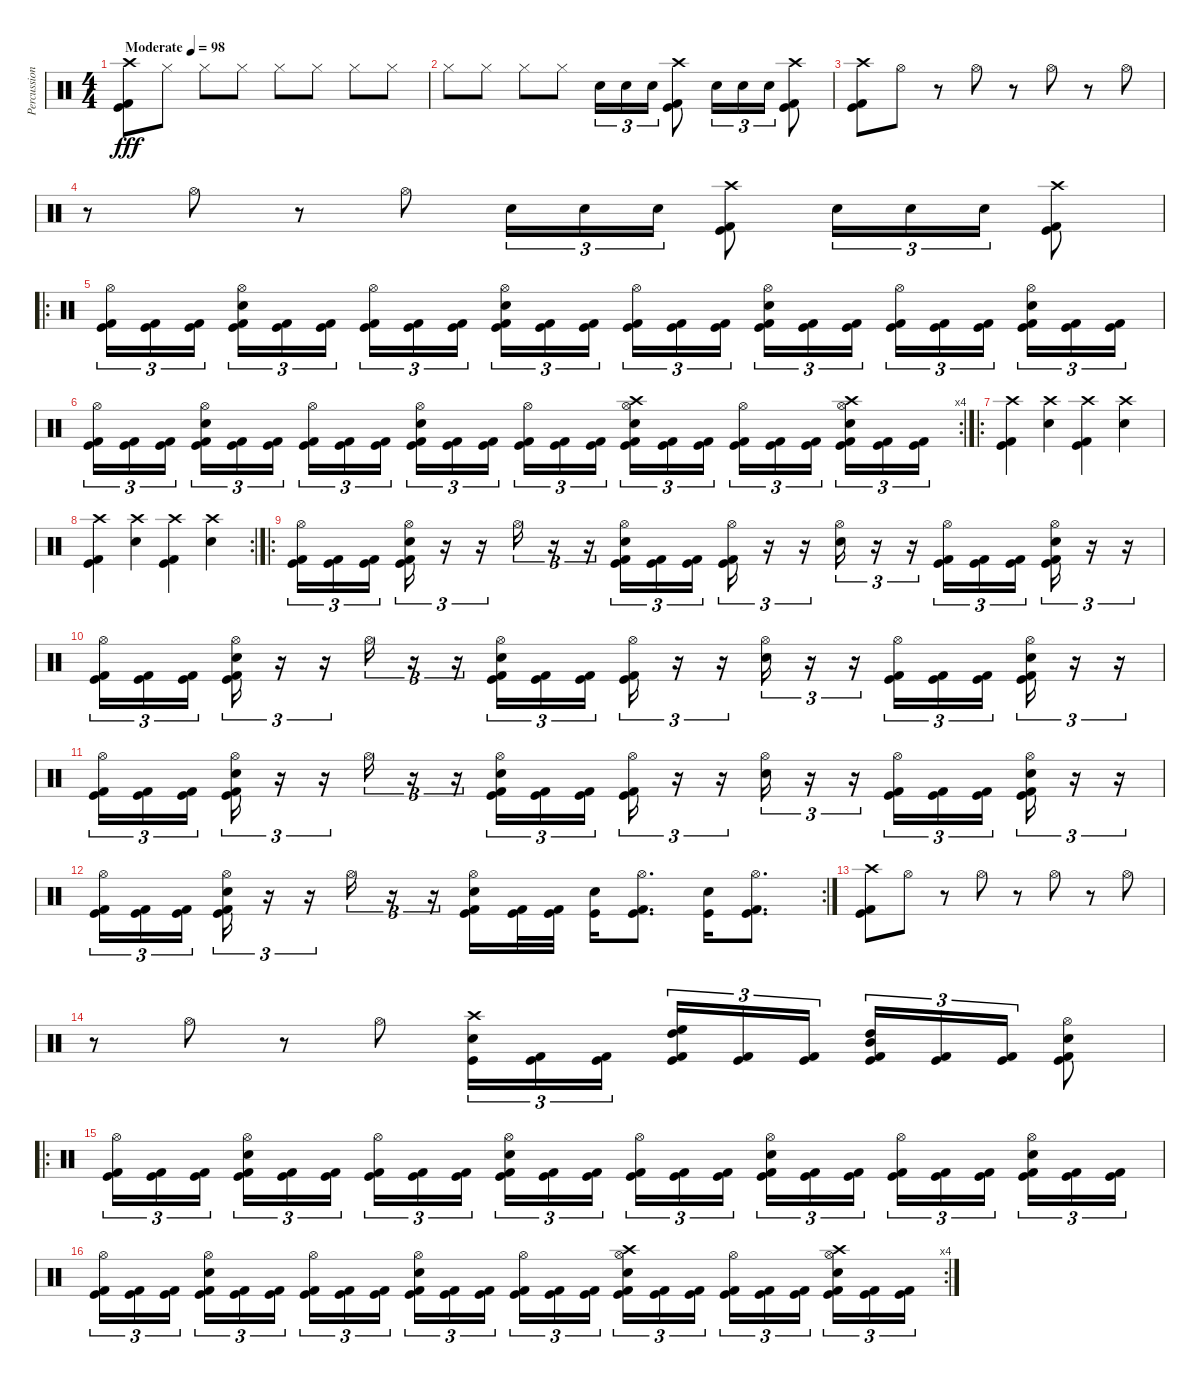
\track ("Percussion" "Percussion") {instrument percussion}
\staff {score}
\articulation defaults
\ts (4 4)
\tempo (98 "Moderate")
\clef neutral
\ks c
("Crash high (hit)" "Kick (hit) 2" "Kick (hit)").8{dy fff} "Hi-Hat (closed)".8 "Hi-Hat (closed)".8 "Hi-Hat (closed)".8 "Hi-Hat (closed)".8 "Hi-Hat (closed)".8 "Hi-Hat (closed)".8 "Hi-Hat (closed)".8 |
"Hi-Hat (closed)".8 "Hi-Hat (closed)".8 "Hi-Hat (closed)".8 "Hi-Hat (closed)".8 "Electric Snare (hit)".16{tu (3 2)} "Electric Snare (hit)".16{tu (3 2)} "Electric Snare (hit)".16{tu (3 2)} ("Crash high (hit)" "Kick (hit) 2" "Kick (hit)").8 "Electric Snare (hit)".16{tu (3 2)} "Electric Snare (hit)".16{tu (3 2)} "Electric Snare (hit)".16{tu (3 2)} ("Crash high (hit)" "Kick (hit) 2" "Kick (hit)").8 |
("Crash high (hit)" "Kick (hit) 2" "Kick (hit)").8 "Hi-Hat (open)".8 r.8 "Hi-Hat (open)".8 r.8 "Hi-Hat (open)".8 r.8 "Hi-Hat (open)".8 |
r.8 "Hi-Hat (open)".8 r.8 "Hi-Hat (open)".8 "Electric Snare (hit)".16{tu (3 2)} "Electric Snare (hit)".16{tu (3 2)} "Electric Snare (hit)".16{tu (3 2)} ("Crash high (hit)" "Kick (hit) 2" "Kick (hit)").8 "Electric Snare (hit)".16{tu (3 2)} "Electric Snare (hit)".16{tu (3 2)} "Electric Snare (hit)".16{tu (3 2)} ("Crash high (hit)" "Kick (hit) 2" "Kick (hit)").8 |
\ro
("Hi-Hat (open)" "Kick (hit) 2" "Kick (hit)").16{tu (3 2)} ("Kick (hit) 2" "Kick (hit)").16{tu (3 2)} ("Kick (hit) 2" "Kick (hit)").16{tu (3 2) beam splitsecondary} ("Electric Snare (hit)" "Hi-Hat (open)" "Kick (hit) 2" "Kick (hit)").16{tu (3 2)} ("Kick (hit) 2" "Kick (hit)").16{tu (3 2)} ("Kick (hit) 2" "Kick (hit)").16{tu (3 2)} ("Hi-Hat (open)" "Kick (hit) 2" "Kick (hit)").16{tu (3 2)} ("Kick (hit) 2" "Kick (hit)").16{tu (3 2)} ("Kick (hit) 2" "Kick (hit)").16{tu (3 2) beam splitsecondary} ("Electric Snare (hit)" "Hi-Hat (open)" "Kick (hit) 2" "Kick (hit)").16{tu (3 2)} ("Kick (hit) 2" "Kick (hit)").16{tu (3 2)} ("Kick (hit) 2" "Kick (hit)").16{tu (3 2)} ("Hi-Hat (open)" "Kick (hit) 2" "Kick (hit)").16{tu (3 2)} ("Kick (hit) 2" "Kick (hit)").16{tu (3 2)} ("Kick (hit) 2" "Kick (hit)").16{tu (3 2) beam splitsecondary} ("Electric Snare (hit)" "Hi-Hat (open)" "Kick (hit) 2" "Kick (hit)").16{tu (3 2)} ("Kick (hit) 2" "Kick (hit)").16{tu (3 2)} ("Kick (hit) 2" "Kick (hit)").16{tu (3 2)} ("Hi-Hat (open)" "Kick (hit) 2" "Kick (hit)").16{tu (3 2)} ("Kick (hit) 2" "Kick (hit)").16{tu (3 2)} ("Kick (hit) 2" "Kick (hit)").16{tu (3 2) beam splitsecondary} ("Electric Snare (hit)" "Hi-Hat (open)" "Kick (hit) 2" "Kick (hit)").16{tu (3 2)} ("Kick (hit) 2" "Kick (hit)").16{tu (3 2)} ("Kick (hit) 2" "Kick (hit)").16{tu (3 2)} |
\rc 4
("Hi-Hat (open)" "Kick (hit) 2" "Kick (hit)").16{tu (3 2)} ("Kick (hit) 2" "Kick (hit)").16{tu (3 2)} ("Kick (hit) 2" "Kick (hit)").16{tu (3 2) beam splitsecondary} ("Electric Snare (hit)" "Hi-Hat (open)" "Kick (hit) 2" "Kick (hit)").16{tu (3 2)} ("Kick (hit) 2" "Kick (hit)").16{tu (3 2)} ("Kick (hit) 2" "Kick (hit)").16{tu (3 2)} ("Hi-Hat (open)" "Kick (hit) 2" "Kick (hit)").16{tu (3 2)} ("Kick (hit) 2" "Kick (hit)").16{tu (3 2)} ("Kick (hit) 2" "Kick (hit)").16{tu (3 2) beam splitsecondary} ("Electric Snare (hit)" "Hi-Hat (open)" "Kick (hit) 2" "Kick (hit)").16{tu (3 2)} ("Kick (hit) 2" "Kick (hit)").16{tu (3 2)} ("Kick (hit) 2" "Kick (hit)").16{tu (3 2)} ("Hi-Hat (open)" "Kick (hit) 2" "Kick (hit)").16{tu (3 2)} ("Kick (hit) 2" "Kick (hit)").16{tu (3 2)} ("Kick (hit) 2" "Kick (hit)").16{tu (3 2) beam splitsecondary} ("Crash high (hit)" "Electric Snare (hit)" "Hi-Hat (open)" "Kick (hit) 2" "Kick (hit)").16{tu (3 2)} ("Kick (hit) 2" "Kick (hit)").16{tu (3 2)} ("Kick (hit) 2" "Kick (hit)").16{tu (3 2)} ("Hi-Hat (open)" "Kick (hit) 2" "Kick (hit)").16{tu (3 2)} ("Kick (hit) 2" "Kick (hit)").16{tu (3 2)} ("Kick (hit) 2" "Kick (hit)").16{tu (3 2) beam splitsecondary} ("Crash high (hit)" "Electric Snare (hit)" "Hi-Hat (open)" "Kick (hit) 2" "Kick (hit)").16{tu (3 2)} ("Kick (hit) 2" "Kick (hit)").16{tu (3 2)} ("Kick (hit) 2" "Kick (hit)").16{tu (3 2)} |
\ro
("Crash high (hit)" "Kick (hit) 2" "Kick (hit)").4 ("Electric Snare (hit)" "Crash high (hit)").4 ("Crash high (hit)" "Kick (hit) 2" "Kick (hit)").4 ("Electric Snare (hit)" "Crash high (hit)").4 |
\rc 2
("Crash high (hit)" "Kick (hit) 2" "Kick (hit)").4 ("Electric Snare (hit)" "Crash high (hit)").4 ("Crash high (hit)" "Kick (hit) 2" "Kick (hit)").4 ("Electric Snare (hit)" "Crash high (hit)").4 |
\ro
("Hi-Hat (open)" "Kick (hit) 2" "Kick (hit)").16{tu (3 2)} ("Kick (hit) 2" "Kick (hit)").16{tu (3 2)} ("Kick (hit) 2" "Kick (hit)").16{tu (3 2) beam splitsecondary} ("Hi-Hat (open)" "Electric Snare (hit)" "Kick (hit) 2" "Kick (hit)").16{tu (3 2)} r.16{tu (3 2)} r.16{tu (3 2)} "Hi-Hat (open)".16{tu (3 2)} r.16{tu (3 2)} r.16{tu (3 2)} ("Hi-Hat (open)" "Electric Snare (hit)" "Kick (hit) 2" "Kick (hit)").16{tu (3 2)} ("Kick (hit) 2" "Kick (hit)").16{tu (3 2)} ("Kick (hit) 2" "Kick (hit)").16{tu (3 2)} ("Hi-Hat (open)" "Kick (hit) 2" "Kick (hit)").16{tu (3 2)} r.16{tu (3 2)} r.16{tu (3 2)} ("Hi-Hat (open)" "Electric Snare (hit)").16{tu (3 2)} r.16{tu (3 2)} r.16{tu (3 2)} ("Hi-Hat (open)" "Kick (hit) 2" "Kick (hit)").16{tu (3 2)} ("Kick (hit) 2" "Kick (hit)").16{tu (3 2)} ("Kick (hit) 2" "Kick (hit)").16{tu (3 2) beam splitsecondary} ("Hi-Hat (open)" "Electric Snare (hit)" "Kick (hit) 2" "Kick (hit)").16{tu (3 2)} r.16{tu (3 2)} r.16{tu (3 2)} |
("Hi-Hat (open)" "Kick (hit) 2" "Kick (hit)").16{tu (3 2)} ("Kick (hit) 2" "Kick (hit)").16{tu (3 2)} ("Kick (hit) 2" "Kick (hit)").16{tu (3 2) beam splitsecondary} ("Hi-Hat (open)" "Electric Snare (hit)" "Kick (hit) 2" "Kick (hit)").16{tu (3 2)} r.16{tu (3 2)} r.16{tu (3 2)} "Hi-Hat (open)".16{tu (3 2)} r.16{tu (3 2)} r.16{tu (3 2)} ("Hi-Hat (open)" "Electric Snare (hit)" "Kick (hit) 2" "Kick (hit)").16{tu (3 2)} ("Kick (hit) 2" "Kick (hit)").16{tu (3 2)} ("Kick (hit) 2" "Kick (hit)").16{tu (3 2)} ("Hi-Hat (open)" "Kick (hit) 2" "Kick (hit)").16{tu (3 2)} r.16{tu (3 2)} r.16{tu (3 2)} ("Hi-Hat (open)" "Electric Snare (hit)").16{tu (3 2)} r.16{tu (3 2)} r.16{tu (3 2)} ("Hi-Hat (open)" "Kick (hit) 2" "Kick (hit)").16{tu (3 2)} ("Kick (hit) 2" "Kick (hit)").16{tu (3 2)} ("Kick (hit) 2" "Kick (hit)").16{tu (3 2) beam splitsecondary} ("Hi-Hat (open)" "Electric Snare (hit)" "Kick (hit) 2" "Kick (hit)").16{tu (3 2)} r.16{tu (3 2)} r.16{tu (3 2)} |
("Hi-Hat (open)" "Kick (hit) 2" "Kick (hit)").16{tu (3 2)} ("Kick (hit) 2" "Kick (hit)").16{tu (3 2)} ("Kick (hit) 2" "Kick (hit)").16{tu (3 2) beam splitsecondary} ("Hi-Hat (open)" "Electric Snare (hit)" "Kick (hit) 2" "Kick (hit)").16{tu (3 2)} r.16{tu (3 2)} r.16{tu (3 2)} "Hi-Hat (open)".16{tu (3 2)} r.16{tu (3 2)} r.16{tu (3 2)} ("Hi-Hat (open)" "Electric Snare (hit)" "Kick (hit) 2" "Kick (hit)").16{tu (3 2)} ("Kick (hit) 2" "Kick (hit)").16{tu (3 2)} ("Kick (hit) 2" "Kick (hit)").16{tu (3 2)} ("Hi-Hat (open)" "Kick (hit) 2" "Kick (hit)").16{tu (3 2)} r.16{tu (3 2)} r.16{tu (3 2)} ("Hi-Hat (open)" "Electric Snare (hit)").16{tu (3 2)} r.16{tu (3 2)} r.16{tu (3 2)} ("Hi-Hat (open)" "Kick (hit) 2" "Kick (hit)").16{tu (3 2)} ("Kick (hit) 2" "Kick (hit)").16{tu (3 2)} ("Kick (hit) 2" "Kick (hit)").16{tu (3 2) beam splitsecondary} ("Hi-Hat (open)" "Electric Snare (hit)" "Kick (hit) 2" "Kick (hit)").16{tu (3 2)} r.16{tu (3 2)} r.16{tu (3 2)} |
\rc 2
("Hi-Hat (open)" "Kick (hit) 2" "Kick (hit)").16{tu (3 2)} ("Kick (hit) 2" "Kick (hit)").16{tu (3 2)} ("Kick (hit) 2" "Kick (hit)").16{tu (3 2) beam splitsecondary} ("Hi-Hat (open)" "Electric Snare (hit)" "Kick (hit) 2" "Kick (hit)").16{tu (3 2)} r.16{tu (3 2)} r.16{tu (3 2)} "Hi-Hat (open)".16{tu (3 2)} r.16{tu (3 2)} r.16{tu (3 2)} ("Hi-Hat (open)" "Electric Snare (hit)" "Kick (hit) 2" "Kick (hit)").16 ("Kick (hit) 2" "Kick (hit)").32 ("Kick (hit) 2" "Kick (hit)").32 ("Electric Snare (hit)" "Kick (hit)").16 ("Hi-Hat (open)" "Kick (hit) 2" "Kick (hit)").8{d} ("Electric Snare (hit)" "Kick (hit)").16 ("Hi-Hat (open)" "Kick (hit)" "Kick (hit) 2").8{d} |
("Crash high (hit)" "Kick (hit) 2" "Kick (hit)").8 "Hi-Hat (open)".8 r.8 "Hi-Hat (open)".8 r.8 "Hi-Hat (open)".8 r.8 "Hi-Hat (open)".8 |
r.8 "Hi-Hat (open)".8 r.8 "Hi-Hat (open)".8 ("Electric Snare (hit)" "Kick (hit)" "Crash high (hit)").16{tu (3 2)} ("Kick (hit)" "Kick (hit) 2").16{tu (3 2)} ("Kick (hit)" "Kick (hit) 2").16{tu (3 2) beam splitsecondary} ("High Tom (hit)" "High Floor Tom (hit)" "Kick (hit)" "Kick (hit) 2").16{tu (3 2)} ("Kick (hit)" "Kick (hit) 2").16{tu (3 2)} ("Kick (hit)" "Kick (hit) 2").16{tu (3 2)} ("Mid Tom (hit)" "High Tom (hit)" "Kick (hit)" "Kick (hit) 2").16{tu (3 2)} ("Kick (hit)" "Kick (hit) 2").16{tu (3 2)} ("Kick (hit)" "Kick (hit) 2").16{tu (3 2)} ("Hi-Hat (open)" "Electric Snare (hit)" "Kick (hit)" "Kick (hit) 2").8 |
\ro
("Hi-Hat (open)" "Kick (hit) 2" "Kick (hit)").16{tu (3 2)} ("Kick (hit) 2" "Kick (hit)").16{tu (3 2)} ("Kick (hit) 2" "Kick (hit)").16{tu (3 2) beam splitsecondary} ("Electric Snare (hit)" "Hi-Hat (open)" "Kick (hit) 2" "Kick (hit)").16{tu (3 2)} ("Kick (hit) 2" "Kick (hit)").16{tu (3 2)} ("Kick (hit) 2" "Kick (hit)").16{tu (3 2)} ("Hi-Hat (open)" "Kick (hit) 2" "Kick (hit)").16{tu (3 2)} ("Kick (hit) 2" "Kick (hit)").16{tu (3 2)} ("Kick (hit) 2" "Kick (hit)").16{tu (3 2) beam splitsecondary} ("Electric Snare (hit)" "Hi-Hat (open)" "Kick (hit) 2" "Kick (hit)").16{tu (3 2)} ("Kick (hit) 2" "Kick (hit)").16{tu (3 2)} ("Kick (hit) 2" "Kick (hit)").16{tu (3 2)} ("Hi-Hat (open)" "Kick (hit) 2" "Kick (hit)").16{tu (3 2)} ("Kick (hit) 2" "Kick (hit)").16{tu (3 2)} ("Kick (hit) 2" "Kick (hit)").16{tu (3 2) beam splitsecondary} ("Electric Snare (hit)" "Hi-Hat (open)" "Kick (hit) 2" "Kick (hit)").16{tu (3 2)} ("Kick (hit) 2" "Kick (hit)").16{tu (3 2)} ("Kick (hit) 2" "Kick (hit)").16{tu (3 2)} ("Hi-Hat (open)" "Kick (hit) 2" "Kick (hit)").16{tu (3 2)} ("Kick (hit) 2" "Kick (hit)").16{tu (3 2)} ("Kick (hit) 2" "Kick (hit)").16{tu (3 2) beam splitsecondary} ("Electric Snare (hit)" "Hi-Hat (open)" "Kick (hit) 2" "Kick (hit)").16{tu (3 2)} ("Kick (hit) 2" "Kick (hit)").16{tu (3 2)} ("Kick (hit) 2" "Kick (hit)").16{tu (3 2)} |
\rc 4
("Hi-Hat (open)" "Kick (hit) 2" "Kick (hit)").16{tu (3 2)} ("Kick (hit) 2" "Kick (hit)").16{tu (3 2)} ("Kick (hit) 2" "Kick (hit)").16{tu (3 2) beam splitsecondary} ("Electric Snare (hit)" "Hi-Hat (open)" "Kick (hit) 2" "Kick (hit)").16{tu (3 2)} ("Kick (hit) 2" "Kick (hit)").16{tu (3 2)} ("Kick (hit) 2" "Kick (hit)").16{tu (3 2)} ("Hi-Hat (open)" "Kick (hit) 2" "Kick (hit)").16{tu (3 2)} ("Kick (hit) 2" "Kick (hit)").16{tu (3 2)} ("Kick (hit) 2" "Kick (hit)").16{tu (3 2) beam splitsecondary} ("Electric Snare (hit)" "Hi-Hat (open)" "Kick (hit) 2" "Kick (hit)").16{tu (3 2)} ("Kick (hit) 2" "Kick (hit)").16{tu (3 2)} ("Kick (hit) 2" "Kick (hit)").16{tu (3 2)} ("Hi-Hat (open)" "Kick (hit) 2" "Kick (hit)").16{tu (3 2)} ("Kick (hit) 2" "Kick (hit)").16{tu (3 2)} ("Kick (hit) 2" "Kick (hit)").16{tu (3 2) beam splitsecondary} ("Crash high (hit)" "Electric Snare (hit)" "Hi-Hat (open)" "Kick (hit) 2" "Kick (hit)").16{tu (3 2)} ("Kick (hit) 2" "Kick (hit)").16{tu (3 2)} ("Kick (hit) 2" "Kick (hit)").16{tu (3 2)} ("Hi-Hat (open)" "Kick (hit) 2" "Kick (hit)").16{tu (3 2)} ("Kick (hit) 2" "Kick (hit)").16{tu (3 2)} ("Kick (hit) 2" "Kick (hit)").16{tu (3 2) beam splitsecondary} ("Crash high (hit)" "Electric Snare (hit)" "Hi-Hat (open)" "Kick (hit) 2" "Kick (hit)").16{tu (3 2)} ("Kick (hit) 2" "Kick (hit)").16{tu (3 2)} ("Kick (hit) 2" "Kick (hit)").16{tu (3 2)}
